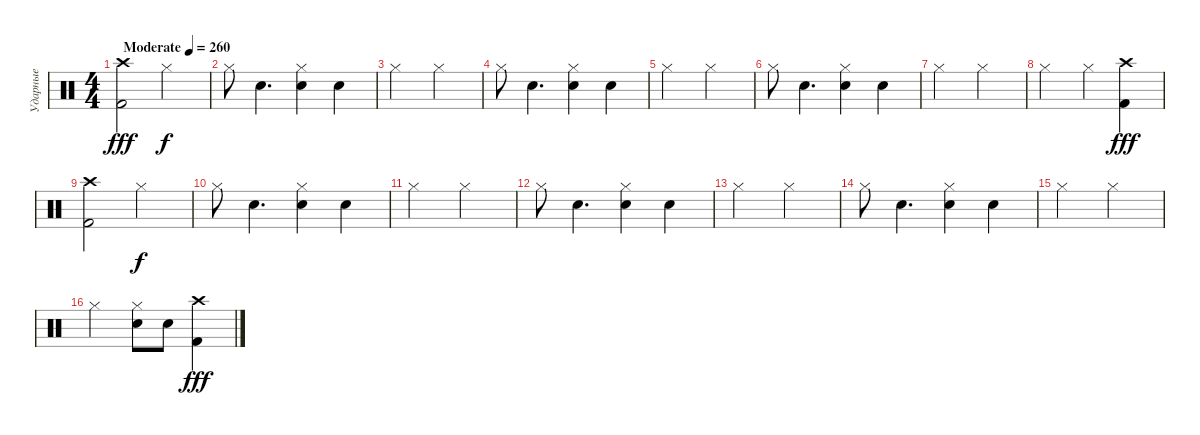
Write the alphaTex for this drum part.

\track ("Ударные" "Ударные") {instrument percussion}
\staff {score}
\articulation defaults
\ts (4 4)
\tempo (260 "Moderate")
\clef neutral
\ks c
("Kick (hit) 2" "Crash high (hit)").2{dy fff} "Hi-Hat (closed)".2{dy f} |
"Hi-Hat (closed)".8 "Snare (hit) 2".4{d} ("Snare (hit) 2" "Hi-Hat (closed)").4 "Snare (hit) 2".4 |
"Hi-Hat (closed)".2 "Hi-Hat (closed)".2 |
"Hi-Hat (closed)".8 "Snare (hit) 2".4{d} ("Snare (hit) 2" "Hi-Hat (closed)").4 "Snare (hit) 2".4 |
"Hi-Hat (closed)".2 "Hi-Hat (closed)".2 |
"Hi-Hat (closed)".8 "Snare (hit) 2".4{d} ("Snare (hit) 2" "Hi-Hat (closed)").4 "Snare (hit) 2".4 |
"Hi-Hat (closed)".2 "Hi-Hat (closed)".2 |
"Hi-Hat (closed)".2 "Hi-Hat (closed)".4 ("Kick (hit) 2" "Crash high (hit)").4{dy fff} |
("Kick (hit) 2" "Crash high (hit)").2 "Hi-Hat (closed)".2{dy f} |
"Hi-Hat (closed)".8 "Snare (hit) 2".4{d} ("Snare (hit) 2" "Hi-Hat (closed)").4 "Snare (hit) 2".4 |
"Hi-Hat (closed)".2 "Hi-Hat (closed)".2 |
"Hi-Hat (closed)".8 "Snare (hit) 2".4{d} ("Snare (hit) 2" "Hi-Hat (closed)").4 "Snare (hit) 2".4 |
"Hi-Hat (closed)".2 "Hi-Hat (closed)".2 |
"Hi-Hat (closed)".8 "Snare (hit) 2".4{d} ("Snare (hit) 2" "Hi-Hat (closed)").4 "Snare (hit) 2".4 |
"Hi-Hat (closed)".2 "Hi-Hat (closed)".2 |
"Hi-Hat (closed)".2 ("Snare (hit) 2" "Hi-Hat (closed)").8 "Snare (hit) 2".8 ("Kick (hit) 2" "Crash high (hit)").4{dy fff}
